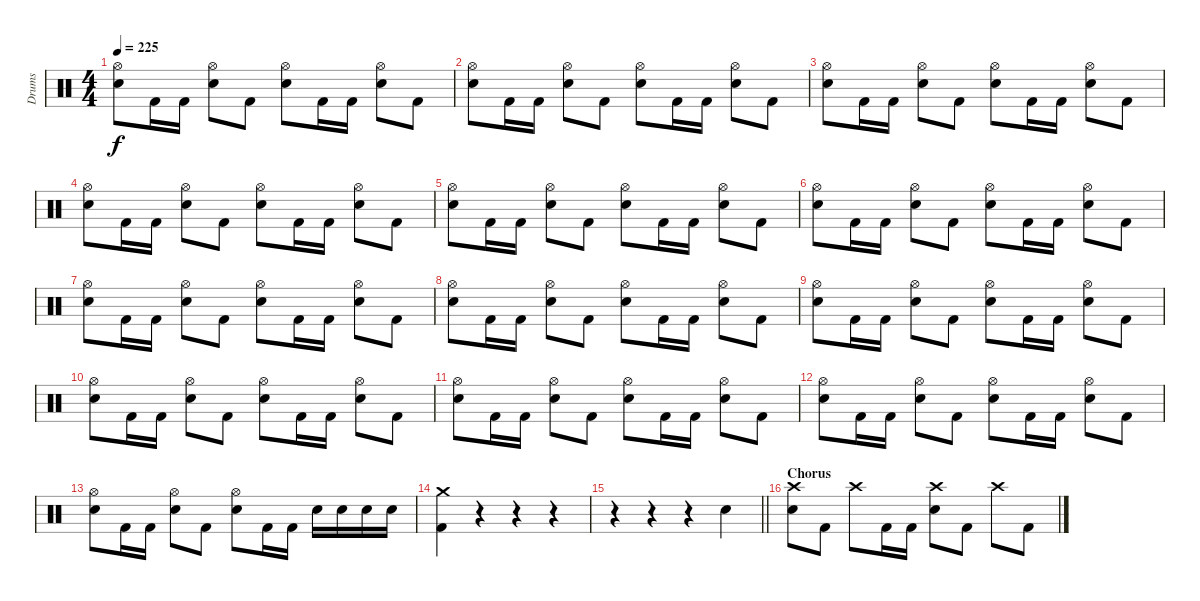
\track ("Drums" "Drums") {instrument percussion}
\staff {score}
\articulation defaults
\ts (4 4)
\tempo 225
\clef neutral
\ks c
("Hi-Hat (open)" "Electric Snare (hit)").8{dy f} "Kick (hit) 2".16 "Kick (hit) 2".16 ("Hi-Hat (open)" "Electric Snare (hit)").8 "Kick (hit) 2".8 ("Hi-Hat (open)" "Electric Snare (hit)").8 "Kick (hit) 2".16 "Kick (hit) 2".16 ("Hi-Hat (open)" "Electric Snare (hit)").8 "Kick (hit) 2".8 |
("Hi-Hat (open)" "Electric Snare (hit)").8 "Kick (hit) 2".16 "Kick (hit) 2".16 ("Hi-Hat (open)" "Electric Snare (hit)").8 "Kick (hit) 2".8 ("Hi-Hat (open)" "Electric Snare (hit)").8 "Kick (hit) 2".16 "Kick (hit) 2".16 ("Hi-Hat (open)" "Electric Snare (hit)").8 "Kick (hit) 2".8 |
("Hi-Hat (open)" "Electric Snare (hit)").8 "Kick (hit) 2".16 "Kick (hit) 2".16 ("Hi-Hat (open)" "Electric Snare (hit)").8 "Kick (hit) 2".8 ("Hi-Hat (open)" "Electric Snare (hit)").8 "Kick (hit) 2".16 "Kick (hit) 2".16 ("Hi-Hat (open)" "Electric Snare (hit)").8 "Kick (hit) 2".8 |
("Hi-Hat (open)" "Electric Snare (hit)").8 "Kick (hit) 2".16 "Kick (hit) 2".16 ("Hi-Hat (open)" "Electric Snare (hit)").8 "Kick (hit) 2".8 ("Hi-Hat (open)" "Electric Snare (hit)").8 "Kick (hit) 2".16 "Kick (hit) 2".16 ("Hi-Hat (open)" "Electric Snare (hit)").8 "Kick (hit) 2".8 |
("Hi-Hat (open)" "Electric Snare (hit)").8 "Kick (hit) 2".16 "Kick (hit) 2".16 ("Hi-Hat (open)" "Electric Snare (hit)").8 "Kick (hit) 2".8 ("Hi-Hat (open)" "Electric Snare (hit)").8 "Kick (hit) 2".16 "Kick (hit) 2".16 ("Hi-Hat (open)" "Electric Snare (hit)").8 "Kick (hit) 2".8 |
("Hi-Hat (open)" "Electric Snare (hit)").8 "Kick (hit) 2".16 "Kick (hit) 2".16 ("Hi-Hat (open)" "Electric Snare (hit)").8 "Kick (hit) 2".8 ("Hi-Hat (open)" "Electric Snare (hit)").8 "Kick (hit) 2".16 "Kick (hit) 2".16 ("Hi-Hat (open)" "Electric Snare (hit)").8 "Kick (hit) 2".8 |
("Hi-Hat (open)" "Electric Snare (hit)").8 "Kick (hit) 2".16 "Kick (hit) 2".16 ("Hi-Hat (open)" "Electric Snare (hit)").8 "Kick (hit) 2".8 ("Hi-Hat (open)" "Electric Snare (hit)").8 "Kick (hit) 2".16 "Kick (hit) 2".16 ("Hi-Hat (open)" "Electric Snare (hit)").8 "Kick (hit) 2".8 |
("Hi-Hat (open)" "Electric Snare (hit)").8 "Kick (hit) 2".16 "Kick (hit) 2".16 ("Hi-Hat (open)" "Electric Snare (hit)").8 "Kick (hit) 2".8 ("Hi-Hat (open)" "Electric Snare (hit)").8 "Kick (hit) 2".16 "Kick (hit) 2".16 ("Hi-Hat (open)" "Electric Snare (hit)").8 "Kick (hit) 2".8 |
("Hi-Hat (open)" "Electric Snare (hit)").8 "Kick (hit) 2".16 "Kick (hit) 2".16 ("Hi-Hat (open)" "Electric Snare (hit)").8 "Kick (hit) 2".8 ("Hi-Hat (open)" "Electric Snare (hit)").8 "Kick (hit) 2".16 "Kick (hit) 2".16 ("Hi-Hat (open)" "Electric Snare (hit)").8 "Kick (hit) 2".8 |
("Hi-Hat (open)" "Electric Snare (hit)").8 "Kick (hit) 2".16 "Kick (hit) 2".16 ("Hi-Hat (open)" "Electric Snare (hit)").8 "Kick (hit) 2".8 ("Hi-Hat (open)" "Electric Snare (hit)").8 "Kick (hit) 2".16 "Kick (hit) 2".16 ("Hi-Hat (open)" "Electric Snare (hit)").8 "Kick (hit) 2".8 |
("Hi-Hat (open)" "Electric Snare (hit)").8 "Kick (hit) 2".16 "Kick (hit) 2".16 ("Hi-Hat (open)" "Electric Snare (hit)").8 "Kick (hit) 2".8 ("Hi-Hat (open)" "Electric Snare (hit)").8 "Kick (hit) 2".16 "Kick (hit) 2".16 ("Hi-Hat (open)" "Electric Snare (hit)").8 "Kick (hit) 2".8 |
("Hi-Hat (open)" "Electric Snare (hit)").8 "Kick (hit) 2".16 "Kick (hit) 2".16 ("Hi-Hat (open)" "Electric Snare (hit)").8 "Kick (hit) 2".8 ("Hi-Hat (open)" "Electric Snare (hit)").8 "Kick (hit) 2".16 "Kick (hit) 2".16 ("Hi-Hat (open)" "Electric Snare (hit)").8 "Kick (hit) 2".8 |
("Hi-Hat (open)" "Electric Snare (hit)").8 "Kick (hit) 2".16 "Kick (hit) 2".16 ("Hi-Hat (open)" "Electric Snare (hit)").8 "Kick (hit) 2".8 ("Hi-Hat (open)" "Electric Snare (hit)").8 "Kick (hit) 2".16 "Kick (hit) 2".16 "Electric Snare (hit)".16 "Electric Snare (hit)".16 "Electric Snare (hit)".16 "Electric Snare (hit)".16 |
("Crash medium (hit)" "Kick (hit) 2").4 r.4 r.4 r.4 |
\barLineRight lightlight
r.4 r.4 r.4 "Electric Snare (hit)".4 |
\section ("" "Chorus")
("Crash high (hit)" "Electric Snare (hit)").8 "Kick (hit) 2".8 "Crash high (hit)".8 "Kick (hit) 2".16 "Kick (hit) 2".16 ("Crash high (hit)" "Electric Snare (hit)").8 "Kick (hit) 2".8 "Crash high (hit)".8 "Kick (hit) 2".8
